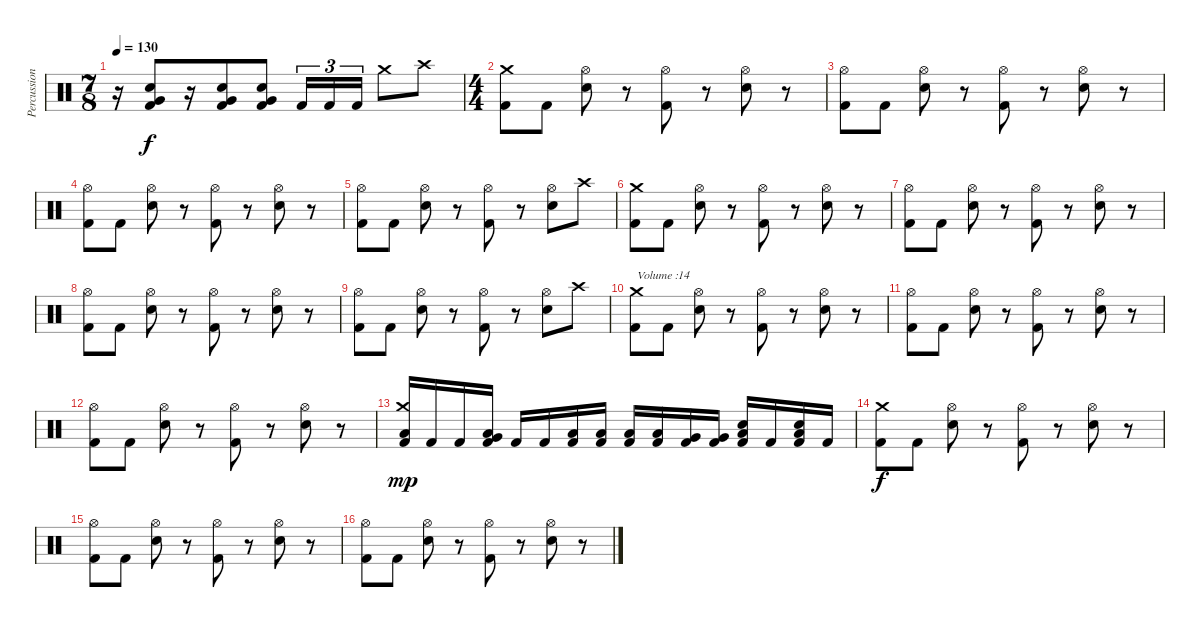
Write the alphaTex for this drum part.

\track ("Percussions" "Percussion") {instrument percussion}
\staff {score}
\articulation defaults
\ts (7 8)
\tempo 130
\clef neutral
\ks c
r.16{dy f} ("Electric Snare (hit)" "Very Low Tom (hit)" "Kick (hit) 2").8 r.16 ("Electric Snare (hit)" "Very Low Tom (hit)" "Kick (hit) 2").8 ("Electric Snare (hit)" "Very Low Tom (hit)" "Kick (hit) 2").8 "Kick (hit) 2".16{tu (3 2)} "Kick (hit) 2".16{tu (3 2)} "Kick (hit) 2".16{tu (3 2)} "Crash medium (hit)".8 "Crash high (hit)".8 |
\ts (4 4)
("Crash medium (hit)" "Kick (hit) 2").8 "Kick (hit) 2".8 ("Hi-Hat (open)" "Electric Snare (hit)").8 r.8 ("Hi-Hat (open)" "Kick (hit) 2").8 r.8 ("Hi-Hat (open)" "Electric Snare (hit)").8 r.8 |
("Hi-Hat (open)" "Kick (hit) 2").8 "Kick (hit) 2".8 ("Hi-Hat (open)" "Electric Snare (hit)").8 r.8 ("Hi-Hat (open)" "Kick (hit) 2").8 r.8 ("Hi-Hat (open)" "Electric Snare (hit)").8 r.8 |
("Hi-Hat (open)" "Kick (hit) 2").8 "Kick (hit) 2".8 ("Hi-Hat (open)" "Electric Snare (hit)").8 r.8 ("Hi-Hat (open)" "Kick (hit) 2").8 r.8 ("Hi-Hat (open)" "Electric Snare (hit)").8 r.8 |
("Hi-Hat (open)" "Kick (hit) 2").8 "Kick (hit) 2".8 ("Hi-Hat (open)" "Electric Snare (hit)").8 r.8 ("Hi-Hat (open)" "Kick (hit) 2").8 r.8 ("Hi-Hat (open)" "Electric Snare (hit)").8 "Crash high (hit)".8 |
("Crash medium (hit)" "Kick (hit) 2").8 "Kick (hit) 2".8 ("Hi-Hat (open)" "Electric Snare (hit)").8 r.8 ("Hi-Hat (open)" "Kick (hit) 2").8 r.8 ("Hi-Hat (open)" "Electric Snare (hit)").8 r.8 |
("Hi-Hat (open)" "Kick (hit) 2").8 "Kick (hit) 2".8 ("Hi-Hat (open)" "Electric Snare (hit)").8 r.8 ("Hi-Hat (open)" "Kick (hit) 2").8 r.8 ("Hi-Hat (open)" "Electric Snare (hit)").8 r.8 |
("Hi-Hat (open)" "Kick (hit) 2").8 "Kick (hit) 2".8 ("Hi-Hat (open)" "Electric Snare (hit)").8 r.8 ("Hi-Hat (open)" "Kick (hit) 2").8 r.8 ("Hi-Hat (open)" "Electric Snare (hit)").8 r.8 |
("Hi-Hat (open)" "Kick (hit) 2").8 "Kick (hit) 2".8 ("Hi-Hat (open)" "Electric Snare (hit)").8 r.8 ("Hi-Hat (open)" "Kick (hit) 2").8 r.8 ("Hi-Hat (open)" "Electric Snare (hit)").8 "Crash high (hit)".8 |
("Crash medium (hit)" "Kick (hit) 2").8{txt "Volume :14"} "Kick (hit) 2".8 ("Hi-Hat (open)" "Electric Snare (hit)").8 r.8 ("Hi-Hat (open)" "Kick (hit) 2").8 r.8 ("Hi-Hat (open)" "Electric Snare (hit)").8 r.8 |
("Hi-Hat (open)" "Kick (hit) 2").8 "Kick (hit) 2".8 ("Hi-Hat (open)" "Electric Snare (hit)").8 r.8 ("Hi-Hat (open)" "Kick (hit) 2").8 r.8 ("Hi-Hat (open)" "Electric Snare (hit)").8 r.8 |
("Hi-Hat (open)" "Kick (hit) 2").8 "Kick (hit) 2".8 ("Hi-Hat (open)" "Electric Snare (hit)").8 r.8 ("Hi-Hat (open)" "Kick (hit) 2").8 r.8 ("Hi-Hat (open)" "Electric Snare (hit)").8 r.8 |
("Crash medium (hit)" "Low Tom (hit)" "Kick (hit) 2").16{dy mp} "Kick (hit) 2".16 "Kick (hit) 2".16 ("Low Tom (hit)" "Very Low Tom (hit)" "Kick (hit) 2").16 "Kick (hit) 2".16 "Kick (hit) 2".16 ("Low Floor Tom (hit)" "Kick (hit) 2").16 ("Low Floor Tom (hit)" "Kick (hit) 2").16 ("Low Tom (hit)" "Kick (hit) 2").16 ("Low Tom (hit)" "Kick (hit) 2").16 ("Very Low Tom (hit)" "Kick (hit) 2").16 ("Very Low Tom (hit)" "Kick (hit) 2").16 ("Electric Snare (hit)" "Low Tom (hit)" "Kick (hit) 2").16 "Kick (hit) 2".16 ("Electric Snare (hit)" "Low Tom (hit)" "Kick (hit) 2").16 "Kick (hit) 2".16 |
("Crash medium (hit)" "Kick (hit) 2").8{dy f} "Kick (hit) 2".8 ("Hi-Hat (open)" "Electric Snare (hit)").8 r.8 ("Hi-Hat (open)" "Kick (hit) 2").8 r.8 ("Hi-Hat (open)" "Electric Snare (hit)").8 r.8 |
("Hi-Hat (open)" "Kick (hit) 2").8 "Kick (hit) 2".8 ("Hi-Hat (open)" "Electric Snare (hit)").8 r.8 ("Hi-Hat (open)" "Kick (hit) 2").8 r.8 ("Hi-Hat (open)" "Electric Snare (hit)").8 r.8 |
("Hi-Hat (open)" "Kick (hit) 2").8 "Kick (hit) 2".8 ("Hi-Hat (open)" "Electric Snare (hit)").8 r.8 ("Hi-Hat (open)" "Kick (hit) 2").8 r.8 ("Hi-Hat (open)" "Electric Snare (hit)").8 r.8
